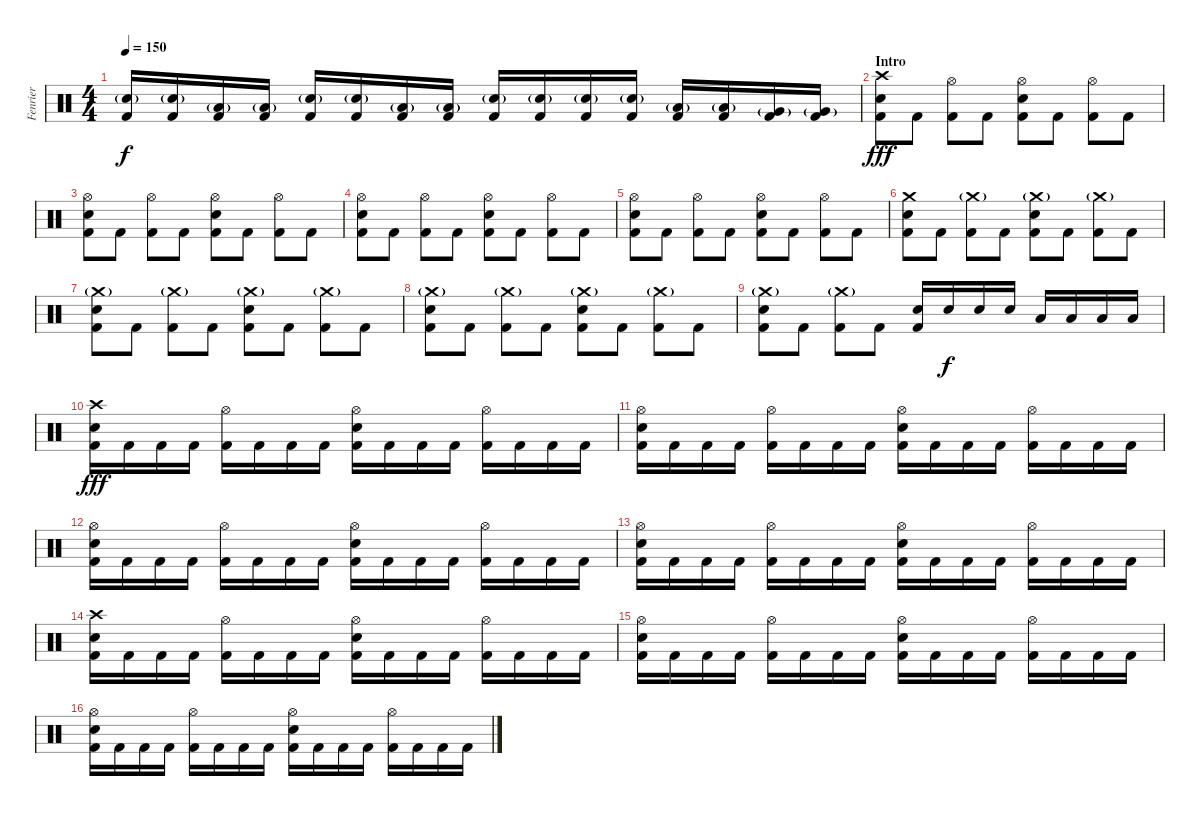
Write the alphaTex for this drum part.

\track ("Fenrier" "Fenrier") {instrument percussion}
\staff {score}
\articulation defaults
\ts (4 4)
\tempo 150
\clef neutral
\ks c
("Electric Snare (hit)"{g} "Kick (hit) 2").16{dy f} ("Electric Snare (hit)"{g} "Kick (hit) 2").16 ("Low Tom (hit)"{g} "Kick (hit) 2").16 ("Low Tom (hit)"{g} "Kick (hit) 2").16 ("Electric Snare (hit)"{g} "Kick (hit) 2").16 ("Electric Snare (hit)"{g} "Kick (hit) 2").16 ("Low Tom (hit)"{g} "Kick (hit) 2").16 ("Low Tom (hit)"{g} "Kick (hit) 2").16 ("Electric Snare (hit)"{g} "Kick (hit) 2").16 ("Electric Snare (hit)"{g} "Kick (hit) 2").16 ("Electric Snare (hit)"{g} "Kick (hit) 2").16 ("Electric Snare (hit)"{g} "Kick (hit) 2").16 ("Low Tom (hit)"{g} "Kick (hit) 2").16 ("Low Tom (hit)"{g} "Kick (hit) 2").16 ("Very Low Tom (hit)"{g} "Kick (hit) 2").16 ("Very Low Tom (hit)"{g} "Kick (hit) 2").16 |
\section ("" "Intro")
("Crash high (hit)" "Electric Snare (hit)" "Kick (hit) 2").8{dy fff} "Kick (hit) 2".8 ("Hi-Hat (open)" "Kick (hit) 2").8 "Kick (hit) 2".8 ("Hi-Hat (open)" "Electric Snare (hit)" "Kick (hit) 2").8 "Kick (hit) 2".8 ("Hi-Hat (open)" "Kick (hit) 2").8 "Kick (hit) 2".8 |
("Hi-Hat (open)" "Electric Snare (hit)" "Kick (hit) 2").8 "Kick (hit) 2".8 ("Hi-Hat (open)" "Kick (hit) 2").8 "Kick (hit) 2".8 ("Hi-Hat (open)" "Electric Snare (hit)" "Kick (hit) 2").8 "Kick (hit) 2".8 ("Hi-Hat (open)" "Kick (hit) 2").8 "Kick (hit) 2".8 |
("Hi-Hat (open)" "Electric Snare (hit)" "Kick (hit) 2").8 "Kick (hit) 2".8 ("Hi-Hat (open)" "Kick (hit) 2").8 "Kick (hit) 2".8 ("Hi-Hat (open)" "Electric Snare (hit)" "Kick (hit) 2").8 "Kick (hit) 2".8 ("Hi-Hat (open)" "Kick (hit) 2").8 "Kick (hit) 2".8 |
("Hi-Hat (open)" "Electric Snare (hit)" "Kick (hit) 2").8 "Kick (hit) 2".8 ("Hi-Hat (open)" "Kick (hit) 2").8 "Kick (hit) 2".8 ("Hi-Hat (open)" "Electric Snare (hit)" "Kick (hit) 2").8 "Kick (hit) 2".8 ("Hi-Hat (open)" "Kick (hit) 2").8 "Kick (hit) 2".8 |
("Crash medium (hit)" "Electric Snare (hit)" "Kick (hit) 2").8 "Kick (hit) 2".8 ("Crash medium (hit)"{g} "Kick (hit) 2").8 "Kick (hit) 2".8 ("Crash medium (hit)"{g} "Electric Snare (hit)" "Kick (hit) 2").8 "Kick (hit) 2".8 ("Crash medium (hit)"{g} "Kick (hit) 2").8 "Kick (hit) 2".8 |
("Crash medium (hit)"{g} "Electric Snare (hit)" "Kick (hit) 2").8 "Kick (hit) 2".8 ("Crash medium (hit)"{g} "Kick (hit) 2").8 "Kick (hit) 2".8 ("Crash medium (hit)"{g} "Electric Snare (hit)" "Kick (hit) 2").8 "Kick (hit) 2".8 ("Crash medium (hit)"{g} "Kick (hit) 2").8 "Kick (hit) 2".8 |
("Crash medium (hit)"{g} "Electric Snare (hit)" "Kick (hit) 2").8 "Kick (hit) 2".8 ("Crash medium (hit)"{g} "Kick (hit) 2").8 "Kick (hit) 2".8 ("Crash medium (hit)"{g} "Electric Snare (hit)" "Kick (hit) 2").8 "Kick (hit) 2".8 ("Crash medium (hit)"{g} "Kick (hit) 2").8 "Kick (hit) 2".8 |
("Crash medium (hit)"{g} "Electric Snare (hit)" "Kick (hit) 2").8 "Kick (hit) 2".8 ("Crash medium (hit)"{g} "Kick (hit) 2").8 "Kick (hit) 2".8 ("Electric Snare (hit)" "Kick (hit) 2").16 "Electric Snare (hit)".16{dy f} "Electric Snare (hit)".16 "Electric Snare (hit)".16 "Low Tom (hit)".16 "Low Tom (hit)".16 "Low Tom (hit)".16 "Low Tom (hit)".16 |
("Crash high (hit)" "Electric Snare (hit)" "Kick (hit) 2").16{dy fff} "Kick (hit) 2".16 "Kick (hit) 2".16 "Kick (hit) 2".16 ("Hi-Hat (open)" "Kick (hit) 2").16 "Kick (hit) 2".16 "Kick (hit) 2".16 "Kick (hit) 2".16 ("Hi-Hat (open)" "Electric Snare (hit)" "Kick (hit) 2").16 "Kick (hit) 2".16 "Kick (hit) 2".16 "Kick (hit) 2".16 ("Hi-Hat (open)" "Kick (hit) 2").16 "Kick (hit) 2".16 "Kick (hit) 2".16 "Kick (hit) 2".16 |
("Hi-Hat (open)" "Electric Snare (hit)" "Kick (hit) 2").16 "Kick (hit) 2".16 "Kick (hit) 2".16 "Kick (hit) 2".16 ("Hi-Hat (open)" "Kick (hit) 2").16 "Kick (hit) 2".16 "Kick (hit) 2".16 "Kick (hit) 2".16 ("Hi-Hat (open)" "Electric Snare (hit)" "Kick (hit) 2").16 "Kick (hit) 2".16 "Kick (hit) 2".16 "Kick (hit) 2".16 ("Hi-Hat (open)" "Kick (hit) 2").16 "Kick (hit) 2".16 "Kick (hit) 2".16 "Kick (hit) 2".16 |
("Hi-Hat (open)" "Electric Snare (hit)" "Kick (hit) 2").16 "Kick (hit) 2".16 "Kick (hit) 2".16 "Kick (hit) 2".16 ("Hi-Hat (open)" "Kick (hit) 2").16 "Kick (hit) 2".16 "Kick (hit) 2".16 "Kick (hit) 2".16 ("Hi-Hat (open)" "Electric Snare (hit)" "Kick (hit) 2").16 "Kick (hit) 2".16 "Kick (hit) 2".16 "Kick (hit) 2".16 ("Hi-Hat (open)" "Kick (hit) 2").16 "Kick (hit) 2".16 "Kick (hit) 2".16 "Kick (hit) 2".16 |
("Hi-Hat (open)" "Electric Snare (hit)" "Kick (hit) 2").16 "Kick (hit) 2".16 "Kick (hit) 2".16 "Kick (hit) 2".16 ("Hi-Hat (open)" "Kick (hit) 2").16 "Kick (hit) 2".16 "Kick (hit) 2".16 "Kick (hit) 2".16 ("Hi-Hat (open)" "Electric Snare (hit)" "Kick (hit) 2").16 "Kick (hit) 2".16 "Kick (hit) 2".16 "Kick (hit) 2".16 ("Hi-Hat (open)" "Kick (hit) 2").16 "Kick (hit) 2".16 "Kick (hit) 2".16 "Kick (hit) 2".16 |
("Crash high (hit)" "Electric Snare (hit)" "Kick (hit) 2").16 "Kick (hit) 2".16 "Kick (hit) 2".16 "Kick (hit) 2".16 ("Hi-Hat (open)" "Kick (hit) 2").16 "Kick (hit) 2".16 "Kick (hit) 2".16 "Kick (hit) 2".16 ("Hi-Hat (open)" "Electric Snare (hit)" "Kick (hit) 2").16 "Kick (hit) 2".16 "Kick (hit) 2".16 "Kick (hit) 2".16 ("Hi-Hat (open)" "Kick (hit) 2").16 "Kick (hit) 2".16 "Kick (hit) 2".16 "Kick (hit) 2".16 |
("Hi-Hat (open)" "Electric Snare (hit)" "Kick (hit) 2").16 "Kick (hit) 2".16 "Kick (hit) 2".16 "Kick (hit) 2".16 ("Hi-Hat (open)" "Kick (hit) 2").16 "Kick (hit) 2".16 "Kick (hit) 2".16 "Kick (hit) 2".16 ("Hi-Hat (open)" "Electric Snare (hit)" "Kick (hit) 2").16 "Kick (hit) 2".16 "Kick (hit) 2".16 "Kick (hit) 2".16 ("Hi-Hat (open)" "Kick (hit) 2").16 "Kick (hit) 2".16 "Kick (hit) 2".16 "Kick (hit) 2".16 |
("Hi-Hat (open)" "Electric Snare (hit)" "Kick (hit) 2").16 "Kick (hit) 2".16 "Kick (hit) 2".16 "Kick (hit) 2".16 ("Hi-Hat (open)" "Kick (hit) 2").16 "Kick (hit) 2".16 "Kick (hit) 2".16 "Kick (hit) 2".16 ("Hi-Hat (open)" "Electric Snare (hit)" "Kick (hit) 2").16 "Kick (hit) 2".16 "Kick (hit) 2".16 "Kick (hit) 2".16 ("Hi-Hat (open)" "Kick (hit) 2").16 "Kick (hit) 2".16 "Kick (hit) 2".16 "Kick (hit) 2".16
